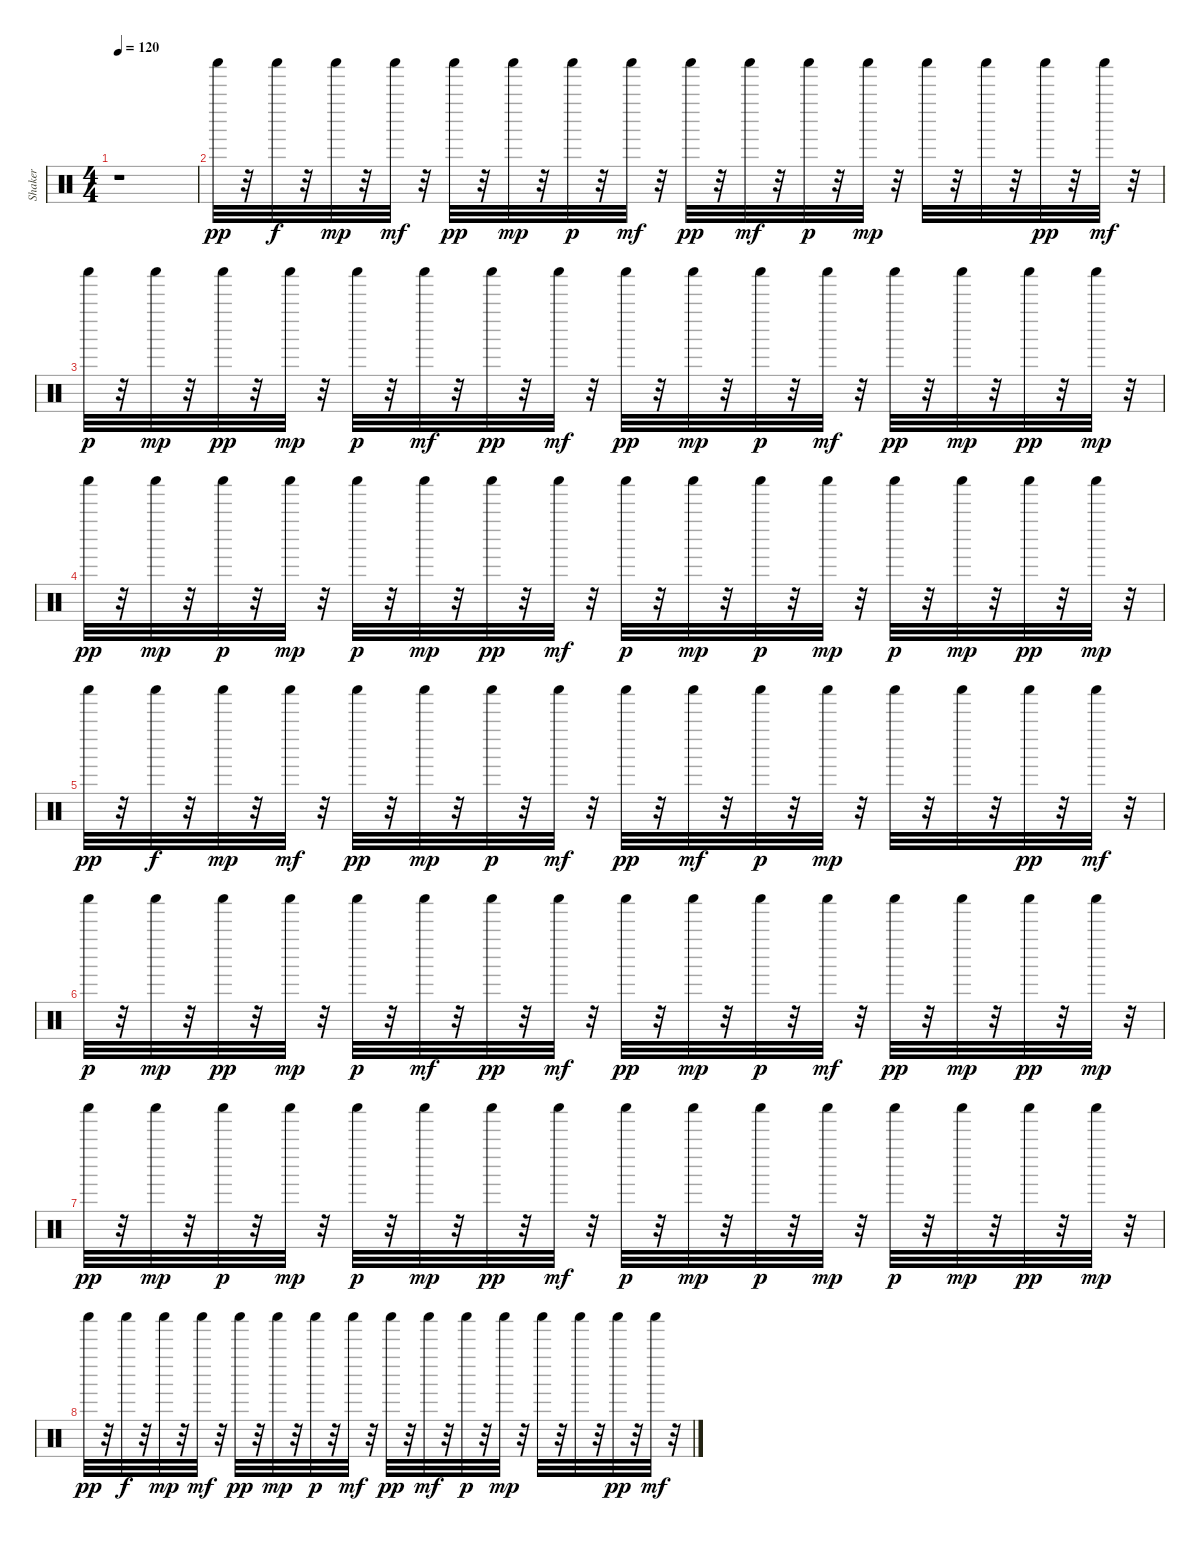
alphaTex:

\track ("Shaker" "Shaker") {instrument percussion}
\staff {score}
\articulation defaults
\ts (4 4)
\tempo 120
\clef neutral
\ks c
r.1{dy pp} |
"Shaker (hit)".32 r.32 "Shaker (hit)".32{dy f} r.32 "Shaker (hit)".32{dy mp} r.32 "Shaker (hit)".32{dy mf} r.32 "Shaker (hit)".32{dy pp} r.32 "Shaker (hit)".32{dy mp} r.32 "Shaker (hit)".32{dy p} r.32 "Shaker (hit)".32{dy mf} r.32 "Shaker (hit)".32{dy pp} r.32 "Shaker (hit)".32{dy mf} r.32 "Shaker (hit)".32{dy p} r.32 "Shaker (hit)".32{dy mp} r.32 "Shaker (hit)".32 r.32 "Shaker (hit)".32 r.32 "Shaker (hit)".32{dy pp} r.32 "Shaker (hit)".32{dy mf} r.32 |
"Shaker (hit)".32{dy p} r.32 "Shaker (hit)".32{dy mp} r.32 "Shaker (hit)".32{dy pp} r.32 "Shaker (hit)".32{dy mp} r.32 "Shaker (hit)".32{dy p} r.32 "Shaker (hit)".32{dy mf} r.32 "Shaker (hit)".32{dy pp} r.32 "Shaker (hit)".32{dy mf} r.32 "Shaker (hit)".32{dy pp} r.32 "Shaker (hit)".32{dy mp} r.32 "Shaker (hit)".32{dy p} r.32 "Shaker (hit)".32{dy mf} r.32 "Shaker (hit)".32{dy pp} r.32 "Shaker (hit)".32{dy mp} r.32 "Shaker (hit)".32{dy pp} r.32 "Shaker (hit)".32{dy mp} r.32 |
"Shaker (hit)".32{dy pp} r.32 "Shaker (hit)".32{dy mp} r.32 "Shaker (hit)".32{dy p} r.32 "Shaker (hit)".32{dy mp} r.32 "Shaker (hit)".32{dy p} r.32 "Shaker (hit)".32{dy mp} r.32 "Shaker (hit)".32{dy pp} r.32 "Shaker (hit)".32{dy mf} r.32 "Shaker (hit)".32{dy p} r.32 "Shaker (hit)".32{dy mp} r.32 "Shaker (hit)".32{dy p} r.32 "Shaker (hit)".32{dy mp} r.32 "Shaker (hit)".32{dy p} r.32 "Shaker (hit)".32{dy mp} r.32 "Shaker (hit)".32{dy pp} r.32 "Shaker (hit)".32{dy mp} r.32 |
"Shaker (hit)".32{dy pp} r.32 "Shaker (hit)".32{dy f} r.32 "Shaker (hit)".32{dy mp} r.32 "Shaker (hit)".32{dy mf} r.32 "Shaker (hit)".32{dy pp} r.32 "Shaker (hit)".32{dy mp} r.32 "Shaker (hit)".32{dy p} r.32 "Shaker (hit)".32{dy mf} r.32 "Shaker (hit)".32{dy pp} r.32 "Shaker (hit)".32{dy mf} r.32 "Shaker (hit)".32{dy p} r.32 "Shaker (hit)".32{dy mp} r.32 "Shaker (hit)".32 r.32 "Shaker (hit)".32 r.32 "Shaker (hit)".32{dy pp} r.32 "Shaker (hit)".32{dy mf} r.32 |
"Shaker (hit)".32{dy p} r.32 "Shaker (hit)".32{dy mp} r.32 "Shaker (hit)".32{dy pp} r.32 "Shaker (hit)".32{dy mp} r.32 "Shaker (hit)".32{dy p} r.32 "Shaker (hit)".32{dy mf} r.32 "Shaker (hit)".32{dy pp} r.32 "Shaker (hit)".32{dy mf} r.32 "Shaker (hit)".32{dy pp} r.32 "Shaker (hit)".32{dy mp} r.32 "Shaker (hit)".32{dy p} r.32 "Shaker (hit)".32{dy mf} r.32 "Shaker (hit)".32{dy pp} r.32 "Shaker (hit)".32{dy mp} r.32 "Shaker (hit)".32{dy pp} r.32 "Shaker (hit)".32{dy mp} r.32 |
"Shaker (hit)".32{dy pp} r.32 "Shaker (hit)".32{dy mp} r.32 "Shaker (hit)".32{dy p} r.32 "Shaker (hit)".32{dy mp} r.32 "Shaker (hit)".32{dy p} r.32 "Shaker (hit)".32{dy mp} r.32 "Shaker (hit)".32{dy pp} r.32 "Shaker (hit)".32{dy mf} r.32 "Shaker (hit)".32{dy p} r.32 "Shaker (hit)".32{dy mp} r.32 "Shaker (hit)".32{dy p} r.32 "Shaker (hit)".32{dy mp} r.32 "Shaker (hit)".32{dy p} r.32 "Shaker (hit)".32{dy mp} r.32 "Shaker (hit)".32{dy pp} r.32 "Shaker (hit)".32{dy mp} r.32 |
"Shaker (hit)".32{dy pp} r.32 "Shaker (hit)".32{dy f} r.32 "Shaker (hit)".32{dy mp} r.32 "Shaker (hit)".32{dy mf} r.32 "Shaker (hit)".32{dy pp} r.32 "Shaker (hit)".32{dy mp} r.32 "Shaker (hit)".32{dy p} r.32 "Shaker (hit)".32{dy mf} r.32 "Shaker (hit)".32{dy pp} r.32 "Shaker (hit)".32{dy mf} r.32 "Shaker (hit)".32{dy p} r.32 "Shaker (hit)".32{dy mp} r.32 "Shaker (hit)".32 r.32 "Shaker (hit)".32 r.32 "Shaker (hit)".32{dy pp} r.32 "Shaker (hit)".32{dy mf} r.32
